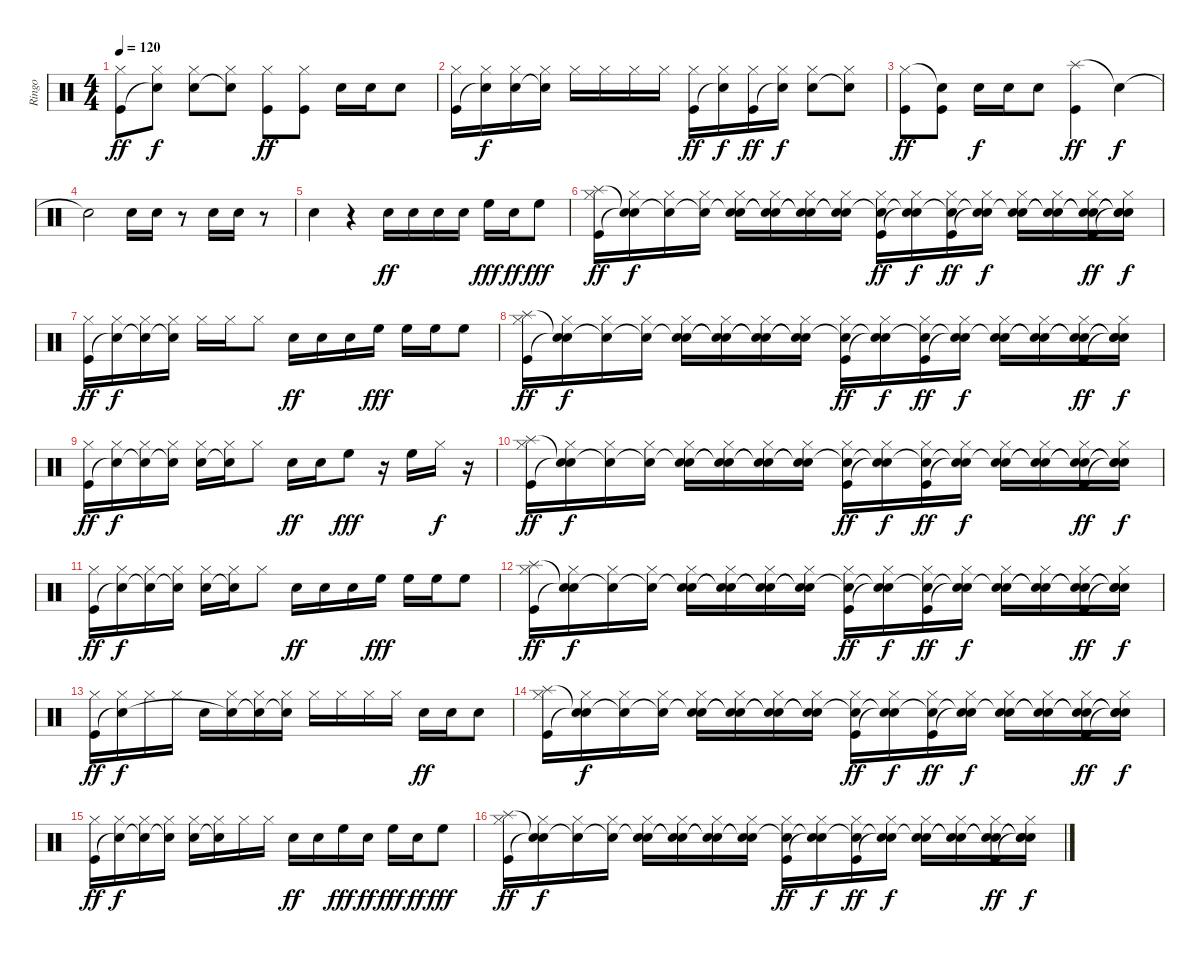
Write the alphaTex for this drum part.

\track ("Ringo" "Ringo") {instrument percussion}
\staff {score}
\articulation defaults
\ts (4 4)
\tempo 120
\clef neutral
\ks c
("Hi-Hat (closed)" "Kick (hit)").8{dy ff} ("Hi-Hat (closed)" "Snare (hit)"{t}).8{dy f} ("Hi-Hat (closed)" "Electric Snare (hit)").8 ("Hi-Hat (closed)" "Snare (hit)"{t}).8 ("Hi-Hat (closed)" "Kick (hit)").8{dy ff} ("Hi-Hat (closed)" "Kick (hit)").8 "Electric Snare (hit)".16 "Electric Snare (hit)".16 "Electric Snare (hit)".8 |
("Hi-Hat (closed)" "Kick (hit)").16 ("Hi-Hat (closed)" "Snare (hit)"{t}).16{dy f} ("Hi-Hat (closed)" "Electric Snare (hit)").16 ("Hi-Hat (closed)" "Snare (hit)"{t}).16 "Hi-Hat (closed)".16 "Hi-Hat (closed)".16 "Hi-Hat (closed)".16 "Hi-Hat (closed)".16 ("Hi-Hat (closed)" "Kick (hit)").16{dy ff} ("Hi-Hat (closed)" "Snare (hit)"{t}).16{dy f} ("Hi-Hat (closed)" "Kick (hit)").16{dy ff} ("Hi-Hat (closed)" "Snare (hit)"{t}).16{dy f} ("Hi-Hat (closed)" "Electric Snare (hit)").8 ("Hi-Hat (closed)" "Snare (hit)"{t}).8 |
("Hi-Hat (closed)" "Kick (hit)").8{dy ff} ("Snare (hit)"{t} "Kick (hit)").8 "Electric Snare (hit)".16{dy f} "Electric Snare (hit)".16 "Electric Snare (hit)".8 ("Splash (hit)" "Kick (hit)").4{dy ff} "Snare (hit)"{t}.4{dy f} |
"Snare (hit)"{t}.2 "Electric Snare (hit)".16 "Electric Snare (hit)".16 r.8 "Electric Snare (hit)".16 "Electric Snare (hit)".16 r.8 |
"Electric Snare (hit)".4 r.4 "Electric Snare (hit)".16{dy ff} "Electric Snare (hit)".16 "Electric Snare (hit)".16 "Electric Snare (hit)".16 "High Floor Tom (hit)".16{dy fff} "Electric Snare (hit)".16{dy ff} "High Floor Tom (hit)".8{dy fff} |
("Splash (hit)" "Hi-Hat (closed)" "Kick (hit)").16{dy ff} ("Snare (hit)"{t} "Hi-Hat (closed)" "Snare (hit)"{t}).16{dy f} ("Snare (hit)"{t} "Hi-Hat (closed)").16 ("Snare (hit)"{t} "Hi-Hat (closed)").16 ("Snare (hit)"{t} "Hi-Hat (closed)" "Electric Snare (hit)").16 ("Snare (hit)"{t} "Hi-Hat (closed)" "Snare (hit)"{t}).16 ("Snare (hit)"{t} "Hi-Hat (closed)" "Snare (hit)"{t}).16 ("Snare (hit)"{t} "Hi-Hat (closed)" "Snare (hit)"{t}).16 ("Snare (hit)"{t} "Hi-Hat (closed)" "Kick (hit)").16{dy ff} ("Snare (hit)"{t} "Hi-Hat (closed)" "Snare (hit)"{t}).16{dy f} ("Snare (hit)"{t} "Hi-Hat (closed)" "Kick (hit)").16{dy ff} ("Snare (hit)"{t} "Hi-Hat (closed)" "Snare (hit)"{t}).16{dy f} ("Snare (hit)"{t} "Hi-Hat (closed)" "Electric Snare (hit)").16 ("Snare (hit)"{t} "Hi-Hat (closed)" "Snare (hit)"{t}).16 ("Snare (hit)"{t} "Hi-Hat (closed)" "Snare (hit)"{t} "Kick (hit)").16{dy ff} ("Snare (hit)"{t} "Hi-Hat (closed)" "Snare (hit)"{t} "Snare (hit)"{t}).16{dy f} |
("Hi-Hat (closed)" "Kick (hit)").16{dy ff} ("Hi-Hat (closed)" "Snare (hit)"{t}).16{dy f} ("Hi-Hat (closed)" "Snare (hit)"{t}).16 ("Hi-Hat (closed)" "Snare (hit)"{t}).16 "Hi-Hat (closed)".16 "Hi-Hat (closed)".16 "Hi-Hat (closed)".8 "Electric Snare (hit)".16{dy ff} "Electric Snare (hit)".16 "Electric Snare (hit)".16 "High Floor Tom (hit)".16{dy fff} "High Floor Tom (hit)".16 "High Floor Tom (hit)".16 "High Floor Tom (hit)".8 |
("Splash (hit)" "Hi-Hat (closed)" "Kick (hit)").16{dy ff} ("Snare (hit)"{t} "Hi-Hat (closed)" "Snare (hit)"{t}).16{dy f} ("Snare (hit)"{t} "Hi-Hat (closed)").16 ("Snare (hit)"{t} "Hi-Hat (closed)").16 ("Snare (hit)"{t} "Hi-Hat (closed)" "Electric Snare (hit)").16 ("Snare (hit)"{t} "Hi-Hat (closed)" "Snare (hit)"{t}).16 ("Snare (hit)"{t} "Hi-Hat (closed)" "Snare (hit)"{t}).16 ("Snare (hit)"{t} "Hi-Hat (closed)" "Snare (hit)"{t}).16 ("Snare (hit)"{t} "Hi-Hat (closed)" "Kick (hit)").16{dy ff} ("Snare (hit)"{t} "Hi-Hat (closed)" "Snare (hit)"{t}).16{dy f} ("Snare (hit)"{t} "Hi-Hat (closed)" "Kick (hit)").16{dy ff} ("Snare (hit)"{t} "Hi-Hat (closed)" "Snare (hit)"{t}).16{dy f} ("Snare (hit)"{t} "Hi-Hat (closed)" "Electric Snare (hit)").16 ("Snare (hit)"{t} "Hi-Hat (closed)" "Snare (hit)"{t}).16 ("Snare (hit)"{t} "Hi-Hat (closed)" "Snare (hit)"{t} "Kick (hit)").16{dy ff} ("Snare (hit)"{t} "Hi-Hat (closed)" "Snare (hit)"{t} "Snare (hit)"{t}).16{dy f} |
("Hi-Hat (closed)" "Kick (hit)").16{dy ff} ("Hi-Hat (closed)" "Snare (hit)"{t}).16{dy f} ("Hi-Hat (closed)" "Snare (hit)"{t}).16 ("Hi-Hat (closed)" "Snare (hit)"{t}).16 ("Hi-Hat (closed)" "Electric Snare (hit)").16 ("Hi-Hat (closed)" "Snare (hit)"{t}).16 "Hi-Hat (closed)".8 "Electric Snare (hit)".16{dy ff} "Electric Snare (hit)".16 "High Floor Tom (hit)".8{dy fff} r.16 "High Floor Tom (hit)".16 "Hi-Hat (closed)".16{dy f} r.16 |
("Splash (hit)" "Hi-Hat (closed)" "Kick (hit)").16{dy ff} ("Snare (hit)"{t} "Hi-Hat (closed)" "Snare (hit)"{t}).16{dy f} ("Snare (hit)"{t} "Hi-Hat (closed)").16 ("Snare (hit)"{t} "Hi-Hat (closed)").16 ("Snare (hit)"{t} "Hi-Hat (closed)" "Electric Snare (hit)").16 ("Snare (hit)"{t} "Hi-Hat (closed)" "Snare (hit)"{t}).16 ("Snare (hit)"{t} "Hi-Hat (closed)" "Snare (hit)"{t}).16 ("Snare (hit)"{t} "Hi-Hat (closed)" "Snare (hit)"{t}).16 ("Snare (hit)"{t} "Hi-Hat (closed)" "Kick (hit)").16{dy ff} ("Snare (hit)"{t} "Hi-Hat (closed)" "Snare (hit)"{t}).16{dy f} ("Snare (hit)"{t} "Hi-Hat (closed)" "Kick (hit)").16{dy ff} ("Snare (hit)"{t} "Hi-Hat (closed)" "Snare (hit)"{t}).16{dy f} ("Snare (hit)"{t} "Hi-Hat (closed)" "Electric Snare (hit)").16 ("Snare (hit)"{t} "Hi-Hat (closed)" "Snare (hit)"{t}).16 ("Snare (hit)"{t} "Hi-Hat (closed)" "Snare (hit)"{t} "Kick (hit)").16{dy ff} ("Snare (hit)"{t} "Hi-Hat (closed)" "Snare (hit)"{t} "Snare (hit)"{t}).16{dy f} |
("Hi-Hat (closed)" "Kick (hit)").16{dy ff} ("Hi-Hat (closed)" "Snare (hit)"{t}).16{dy f} ("Hi-Hat (closed)" "Snare (hit)"{t}).16 ("Hi-Hat (closed)" "Snare (hit)"{t}).16 ("Hi-Hat (closed)" "Electric Snare (hit)").16 ("Hi-Hat (closed)" "Snare (hit)"{t}).16 "Hi-Hat (closed)".8 "Electric Snare (hit)".16{dy ff} "Electric Snare (hit)".16 "Electric Snare (hit)".16 "High Floor Tom (hit)".16{dy fff} "High Floor Tom (hit)".16 "High Floor Tom (hit)".16 "High Floor Tom (hit)".8 |
("Splash (hit)" "Hi-Hat (closed)" "Kick (hit)").16{dy ff} ("Snare (hit)"{t} "Hi-Hat (closed)" "Snare (hit)"{t}).16{dy f} ("Snare (hit)"{t} "Hi-Hat (closed)").16 ("Snare (hit)"{t} "Hi-Hat (closed)").16 ("Snare (hit)"{t} "Hi-Hat (closed)" "Electric Snare (hit)").16 ("Snare (hit)"{t} "Hi-Hat (closed)" "Snare (hit)"{t}).16 ("Snare (hit)"{t} "Hi-Hat (closed)" "Snare (hit)"{t}).16 ("Snare (hit)"{t} "Hi-Hat (closed)" "Snare (hit)"{t}).16 ("Snare (hit)"{t} "Hi-Hat (closed)" "Kick (hit)").16{dy ff} ("Snare (hit)"{t} "Hi-Hat (closed)" "Snare (hit)"{t}).16{dy f} ("Snare (hit)"{t} "Hi-Hat (closed)" "Kick (hit)").16{dy ff} ("Snare (hit)"{t} "Hi-Hat (closed)" "Snare (hit)"{t}).16{dy f} ("Snare (hit)"{t} "Hi-Hat (closed)" "Electric Snare (hit)").16 ("Snare (hit)"{t} "Hi-Hat (closed)" "Snare (hit)"{t}).16 ("Snare (hit)"{t} "Hi-Hat (closed)" "Snare (hit)"{t} "Kick (hit)").16{dy ff} ("Snare (hit)"{t} "Hi-Hat (closed)" "Snare (hit)"{t} "Snare (hit)"{t}).16{dy f} |
("Hi-Hat (closed)" "Kick (hit)").16{dy ff} ("Hi-Hat (closed)" "Snare (hit)"{t}).16{dy f} "Hi-Hat (closed)".16 "Hi-Hat (closed)".16 "Electric Snare (hit)".16 ("Hi-Hat (closed)" "Snare (hit)"{t}).16 ("Hi-Hat (closed)" "Snare (hit)"{t}).16 ("Hi-Hat (closed)" "Snare (hit)"{t}).16 "Hi-Hat (closed)".16 "Hi-Hat (closed)".16 "Hi-Hat (closed)".16 "Hi-Hat (closed)".16 "Electric Snare (hit)".16{dy ff} "Electric Snare (hit)".16 "Electric Snare (hit)".8 |
("Splash (hit)" "Hi-Hat (closed)" "Kick (hit)").16 ("Snare (hit)"{t} "Hi-Hat (closed)" "Snare (hit)"{t}).16{dy f} ("Snare (hit)"{t} "Hi-Hat (closed)").16 ("Snare (hit)"{t} "Hi-Hat (closed)").16 ("Snare (hit)"{t} "Hi-Hat (closed)" "Electric Snare (hit)").16 ("Snare (hit)"{t} "Hi-Hat (closed)" "Snare (hit)"{t}).16 ("Snare (hit)"{t} "Hi-Hat (closed)" "Snare (hit)"{t}).16 ("Snare (hit)"{t} "Hi-Hat (closed)" "Snare (hit)"{t}).16 ("Snare (hit)"{t} "Hi-Hat (closed)" "Kick (hit)").16{dy ff} ("Snare (hit)"{t} "Hi-Hat (closed)" "Snare (hit)"{t}).16{dy f} ("Snare (hit)"{t} "Hi-Hat (closed)" "Kick (hit)").16{dy ff} ("Snare (hit)"{t} "Hi-Hat (closed)" "Snare (hit)"{t}).16{dy f} ("Snare (hit)"{t} "Hi-Hat (closed)" "Electric Snare (hit)").16 ("Snare (hit)"{t} "Hi-Hat (closed)" "Snare (hit)"{t}).16 ("Snare (hit)"{t} "Hi-Hat (closed)" "Snare (hit)"{t} "Kick (hit)").16{dy ff} ("Snare (hit)"{t} "Hi-Hat (closed)" "Snare (hit)"{t} "Snare (hit)"{t}).16{dy f} |
("Hi-Hat (closed)" "Kick (hit)").16{dy ff} ("Hi-Hat (closed)" "Snare (hit)"{t}).16{dy f} ("Hi-Hat (closed)" "Snare (hit)"{t}).16 ("Hi-Hat (closed)" "Snare (hit)"{t}).16 ("Hi-Hat (closed)" "Electric Snare (hit)").16 ("Hi-Hat (closed)" "Snare (hit)"{t}).16 "Hi-Hat (closed)".16 "Hi-Hat (closed)".16 "Electric Snare (hit)".16{dy ff} "Electric Snare (hit)".16 "High Floor Tom (hit)".16{dy fff} "Electric Snare (hit)".16{dy ff} "High Floor Tom (hit)".16{dy fff} "Electric Snare (hit)".16{dy ff} "High Floor Tom (hit)".8{dy fff} |
("Splash (hit)" "Hi-Hat (closed)" "Kick (hit)").16{dy ff} ("Snare (hit)"{t} "Hi-Hat (closed)" "Snare (hit)"{t}).16{dy f} ("Snare (hit)"{t} "Hi-Hat (closed)").16 ("Snare (hit)"{t} "Hi-Hat (closed)").16 ("Snare (hit)"{t} "Hi-Hat (closed)" "Electric Snare (hit)").16 ("Snare (hit)"{t} "Hi-Hat (closed)" "Snare (hit)"{t}).16 ("Snare (hit)"{t} "Hi-Hat (closed)" "Snare (hit)"{t}).16 ("Snare (hit)"{t} "Hi-Hat (closed)" "Snare (hit)"{t}).16 ("Snare (hit)"{t} "Hi-Hat (closed)" "Kick (hit)").16{dy ff} ("Snare (hit)"{t} "Hi-Hat (closed)" "Snare (hit)"{t}).16{dy f} ("Snare (hit)"{t} "Hi-Hat (closed)" "Kick (hit)").16{dy ff} ("Snare (hit)"{t} "Hi-Hat (closed)" "Snare (hit)"{t}).16{dy f} ("Snare (hit)"{t} "Hi-Hat (closed)" "Electric Snare (hit)").16 ("Snare (hit)"{t} "Hi-Hat (closed)" "Snare (hit)"{t}).16 ("Snare (hit)"{t} "Hi-Hat (closed)" "Snare (hit)"{t} "Kick (hit)").16{dy ff} ("Snare (hit)"{t} "Hi-Hat (closed)" "Snare (hit)"{t} "Snare (hit)"{t}).16{dy f}
